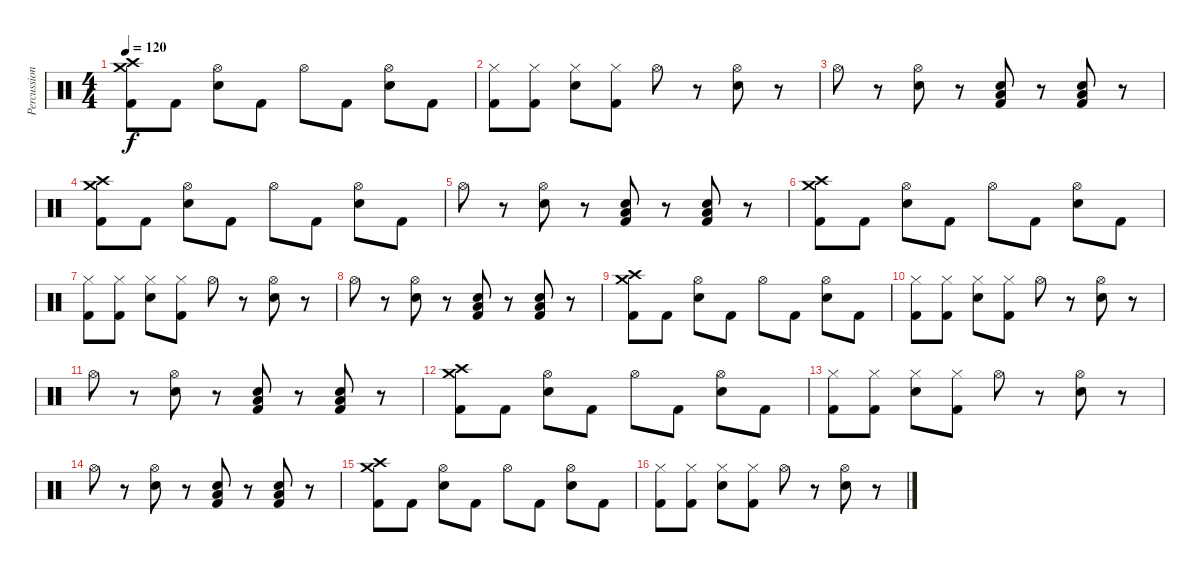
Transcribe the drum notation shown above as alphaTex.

\track ("Percussion" "Percussion") {instrument percussion}
\staff {score}
\articulation defaults
\ts (4 4)
\tempo 120
\clef neutral
\ks c
("Crash medium (hit)" "Crash high (hit)" "Kick (hit) 2").8{dy f} "Kick (hit) 2".8 ("Hi-Hat (open)" "Electric Snare (hit)").8 "Kick (hit) 2".8 "Hi-Hat (open)".8 "Kick (hit) 2".8 ("Hi-Hat (open)" "Electric Snare (hit)").8 "Kick (hit) 2".8 |
("Hi-Hat (closed)" "Kick (hit) 2").8 ("Hi-Hat (closed)" "Kick (hit) 2").8 ("Hi-Hat (closed)" "Electric Snare (hit)").8 ("Hi-Hat (closed)" "Kick (hit) 2").8 "Hi-Hat (open)".8 r.8 ("Hi-Hat (open)" "Electric Snare (hit)").8 r.8 |
"Hi-Hat (open)".8 r.8 ("Hi-Hat (open)" "Electric Snare (hit)").8 r.8 ("Electric Snare (hit)" "Low Floor Tom (hit)" "Kick (hit) 2").8 r.8 ("Electric Snare (hit)" "Low Floor Tom (hit)" "Kick (hit) 2").8 r.8 |
("Crash medium (hit)" "Crash high (hit)" "Kick (hit) 2").8 "Kick (hit) 2".8 ("Hi-Hat (open)" "Electric Snare (hit)").8 "Kick (hit) 2".8 "Hi-Hat (open)".8 "Kick (hit) 2".8 ("Hi-Hat (open)" "Electric Snare (hit)").8 "Kick (hit) 2".8 |
"Hi-Hat (open)".8 r.8 ("Hi-Hat (open)" "Electric Snare (hit)").8 r.8 ("Electric Snare (hit)" "Low Floor Tom (hit)" "Kick (hit) 2").8 r.8 ("Electric Snare (hit)" "Low Floor Tom (hit)" "Kick (hit) 2").8 r.8 |
("Crash medium (hit)" "Crash high (hit)" "Kick (hit) 2").8 "Kick (hit) 2".8 ("Hi-Hat (open)" "Electric Snare (hit)").8 "Kick (hit) 2".8 "Hi-Hat (open)".8 "Kick (hit) 2".8 ("Hi-Hat (open)" "Electric Snare (hit)").8 "Kick (hit) 2".8 |
("Hi-Hat (closed)" "Kick (hit) 2").8 ("Hi-Hat (closed)" "Kick (hit) 2").8 ("Hi-Hat (closed)" "Electric Snare (hit)").8 ("Hi-Hat (closed)" "Kick (hit) 2").8 "Hi-Hat (open)".8 r.8 ("Hi-Hat (open)" "Electric Snare (hit)").8 r.8 |
"Hi-Hat (open)".8 r.8 ("Hi-Hat (open)" "Electric Snare (hit)").8 r.8 ("Electric Snare (hit)" "Low Floor Tom (hit)" "Kick (hit) 2").8 r.8 ("Electric Snare (hit)" "Low Floor Tom (hit)" "Kick (hit) 2").8 r.8 |
("Crash medium (hit)" "Crash high (hit)" "Kick (hit) 2").8 "Kick (hit) 2".8 ("Hi-Hat (open)" "Electric Snare (hit)").8 "Kick (hit) 2".8 "Hi-Hat (open)".8 "Kick (hit) 2".8 ("Hi-Hat (open)" "Electric Snare (hit)").8 "Kick (hit) 2".8 |
("Hi-Hat (closed)" "Kick (hit) 2").8 ("Hi-Hat (closed)" "Kick (hit) 2").8 ("Hi-Hat (closed)" "Electric Snare (hit)").8 ("Hi-Hat (closed)" "Kick (hit) 2").8 "Hi-Hat (open)".8 r.8 ("Hi-Hat (open)" "Electric Snare (hit)").8 r.8 |
"Hi-Hat (open)".8 r.8 ("Hi-Hat (open)" "Electric Snare (hit)").8 r.8 ("Electric Snare (hit)" "Low Floor Tom (hit)" "Kick (hit) 2").8 r.8 ("Electric Snare (hit)" "Low Floor Tom (hit)" "Kick (hit) 2").8 r.8 |
("Crash medium (hit)" "Crash high (hit)" "Kick (hit) 2").8 "Kick (hit) 2".8 ("Hi-Hat (open)" "Electric Snare (hit)").8 "Kick (hit) 2".8 "Hi-Hat (open)".8 "Kick (hit) 2".8 ("Hi-Hat (open)" "Electric Snare (hit)").8 "Kick (hit) 2".8 |
("Hi-Hat (closed)" "Kick (hit) 2").8 ("Hi-Hat (closed)" "Kick (hit) 2").8 ("Hi-Hat (closed)" "Electric Snare (hit)").8 ("Hi-Hat (closed)" "Kick (hit) 2").8 "Hi-Hat (open)".8 r.8 ("Hi-Hat (open)" "Electric Snare (hit)").8 r.8 |
"Hi-Hat (open)".8 r.8 ("Hi-Hat (open)" "Electric Snare (hit)").8 r.8 ("Electric Snare (hit)" "Low Floor Tom (hit)" "Kick (hit) 2").8 r.8 ("Electric Snare (hit)" "Low Floor Tom (hit)" "Kick (hit) 2").8 r.8 |
("Crash medium (hit)" "Crash high (hit)" "Kick (hit) 2").8 "Kick (hit) 2".8 ("Hi-Hat (open)" "Electric Snare (hit)").8 "Kick (hit) 2".8 "Hi-Hat (open)".8 "Kick (hit) 2".8 ("Hi-Hat (open)" "Electric Snare (hit)").8 "Kick (hit) 2".8 |
("Hi-Hat (closed)" "Kick (hit) 2").8 ("Hi-Hat (closed)" "Kick (hit) 2").8 ("Hi-Hat (closed)" "Electric Snare (hit)").8 ("Hi-Hat (closed)" "Kick (hit) 2").8 "Hi-Hat (open)".8 r.8 ("Hi-Hat (open)" "Electric Snare (hit)").8 r.8
